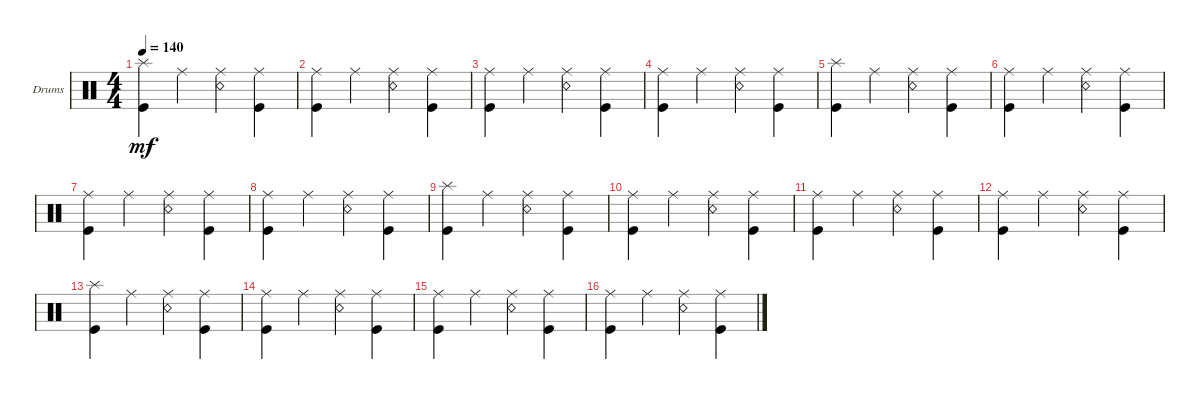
\defaultSystemsLayout 4
\bracketExtendMode groupsimilarinstruments
\firstSystemTrackNameOrientation horizontal
\otherSystemsTrackNameOrientation horizontal
\track ("Drumkit" "Drums") {instrument percussion}
\staff {score}
\articulation defaults
\ts (4 4)
\tempo 140
\clef neutral
\ks c
("Kick (hit)" "Splash (hit)").4{dy mf} "Ride (middle)".4 ("Snare (rim shot)" "Ride (middle)").4 ("Ride (middle)" "Kick (hit)").4 |
("Kick (hit)" "Ride (middle)").4 "Ride (middle)".4 ("Snare (rim shot)" "Ride (middle)").4 ("Ride (middle)" "Kick (hit)").4 |
("Kick (hit)" "Ride (middle)").4 "Ride (middle)".4 ("Snare (rim shot)" "Ride (middle)").4 ("Ride (middle)" "Kick (hit)").4 |
("Kick (hit)" "Ride (middle)").4 "Ride (middle)".4 ("Snare (rim shot)" "Ride (middle)").4 ("Ride (middle)" "Kick (hit)").4 |
("Kick (hit)" "Splash (hit)").4 "Ride (middle)".4 ("Snare (rim shot)" "Ride (middle)").4 ("Ride (middle)" "Kick (hit)").4 |
("Kick (hit)" "Ride (middle)").4 "Ride (middle)".4 ("Snare (rim shot)" "Ride (middle)").4 ("Ride (middle)" "Kick (hit)").4 |
("Kick (hit)" "Ride (middle)").4 "Ride (middle)".4 ("Snare (rim shot)" "Ride (middle)").4 ("Ride (middle)" "Kick (hit)").4 |
("Kick (hit)" "Ride (middle)").4 "Ride (middle)".4 ("Snare (rim shot)" "Ride (middle)").4 ("Ride (middle)" "Kick (hit)").4 |
("Kick (hit)" "Splash (hit)").4 "Ride (middle)".4 ("Snare (rim shot)" "Ride (middle)").4 ("Ride (middle)" "Kick (hit)").4 |
("Kick (hit)" "Ride (middle)").4 "Ride (middle)".4 ("Snare (rim shot)" "Ride (middle)").4 ("Ride (middle)" "Kick (hit)").4 |
("Kick (hit)" "Ride (middle)").4 "Ride (middle)".4 ("Snare (rim shot)" "Ride (middle)").4 ("Ride (middle)" "Kick (hit)").4 |
("Kick (hit)" "Ride (middle)").4 "Ride (middle)".4 ("Snare (rim shot)" "Ride (middle)").4 ("Ride (middle)" "Kick (hit)").4 |
("Kick (hit)" "Splash (hit)").4 "Ride (middle)".4 ("Snare (rim shot)" "Ride (middle)").4 ("Ride (middle)" "Kick (hit)").4 |
("Kick (hit)" "Ride (middle)").4 "Ride (middle)".4 ("Snare (rim shot)" "Ride (middle)").4 ("Ride (middle)" "Kick (hit)").4 |
("Kick (hit)" "Ride (middle)").4 "Ride (middle)".4 ("Snare (rim shot)" "Ride (middle)").4 ("Ride (middle)" "Kick (hit)").4 |
("Kick (hit)" "Ride (middle)").4 "Ride (middle)".4 ("Snare (rim shot)" "Ride (middle)").4 ("Ride (middle)" "Kick (hit)").4
